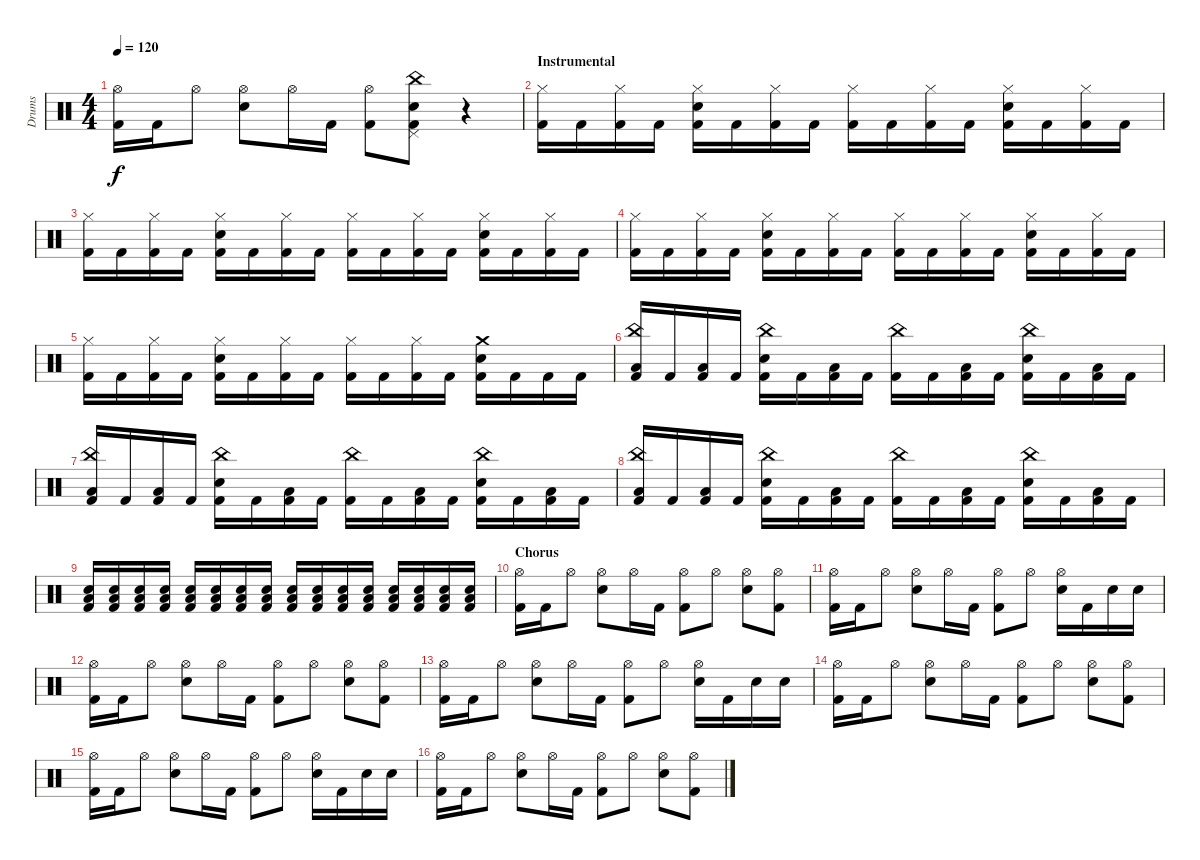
\track ("Drums" "Drums") {instrument percussion}
\staff {score}
\articulation defaults
\ts (4 4)
\tempo 120
\clef neutral
\ks c
("Hi-Hat (open)" "Kick (hit) 2").16{dy f} "Kick (hit) 2".16 "Hi-Hat (open)".8 ("Hi-Hat (open)" "Electric Snare (hit)").8 "Hi-Hat (open)".16 "Kick (hit) 2".16 ("Hi-Hat (open)" "Kick (hit) 2").8 ("China (hit)" "Pedal Hi-Hat (hit)" "Electric Snare (hit)" "Kick (hit) 2").8 r.4 |
\section ("" "Instrumental")
("Hi-Hat (closed)" "Kick (hit) 2").16 "Kick (hit) 2".16 ("Hi-Hat (closed)" "Kick (hit) 2").16 "Kick (hit) 2".16 ("Hi-Hat (closed)" "Electric Snare (hit)" "Kick (hit) 2").16 "Kick (hit) 2".16 ("Hi-Hat (closed)" "Kick (hit) 2").16 "Kick (hit) 2".16 ("Hi-Hat (closed)" "Kick (hit) 2").16 "Kick (hit) 2".16 ("Hi-Hat (closed)" "Kick (hit) 2").16 "Kick (hit) 2".16 ("Hi-Hat (closed)" "Electric Snare (hit)" "Kick (hit) 2").16 "Kick (hit) 2".16 ("Hi-Hat (closed)" "Kick (hit) 2").16 "Kick (hit) 2".16 |
("Hi-Hat (closed)" "Kick (hit) 2").16 "Kick (hit) 2".16 ("Hi-Hat (closed)" "Kick (hit) 2").16 "Kick (hit) 2".16 ("Hi-Hat (closed)" "Electric Snare (hit)" "Kick (hit) 2").16 "Kick (hit) 2".16 ("Hi-Hat (closed)" "Kick (hit) 2").16 "Kick (hit) 2".16 ("Hi-Hat (closed)" "Kick (hit) 2").16 "Kick (hit) 2".16 ("Hi-Hat (closed)" "Kick (hit) 2").16 "Kick (hit) 2".16 ("Hi-Hat (closed)" "Electric Snare (hit)" "Kick (hit) 2").16 "Kick (hit) 2".16 ("Hi-Hat (closed)" "Kick (hit) 2").16 "Kick (hit) 2".16 |
("Hi-Hat (closed)" "Kick (hit) 2").16 "Kick (hit) 2".16 ("Hi-Hat (closed)" "Kick (hit) 2").16 "Kick (hit) 2".16 ("Hi-Hat (closed)" "Electric Snare (hit)" "Kick (hit) 2").16 "Kick (hit) 2".16 ("Hi-Hat (closed)" "Kick (hit) 2").16 "Kick (hit) 2".16 ("Hi-Hat (closed)" "Kick (hit) 2").16 "Kick (hit) 2".16 ("Hi-Hat (closed)" "Kick (hit) 2").16 "Kick (hit) 2".16 ("Hi-Hat (closed)" "Electric Snare (hit)" "Kick (hit) 2").16 "Kick (hit) 2".16 ("Hi-Hat (closed)" "Kick (hit) 2").16 "Kick (hit) 2".16 |
("Hi-Hat (closed)" "Kick (hit) 2").16 "Kick (hit) 2".16 ("Hi-Hat (closed)" "Kick (hit) 2").16 "Kick (hit) 2".16 ("Hi-Hat (closed)" "Electric Snare (hit)" "Kick (hit) 2").16 "Kick (hit) 2".16 ("Hi-Hat (closed)" "Kick (hit) 2").16 "Kick (hit) 2".16 ("Hi-Hat (closed)" "Kick (hit) 2").16 "Kick (hit) 2".16 ("Hi-Hat (closed)" "Kick (hit) 2").16 "Kick (hit) 2".16 ("Crash medium (hit)" "Electric Snare (hit)" "Kick (hit) 2").16 "Kick (hit) 2".16 "Kick (hit) 2".16 "Kick (hit) 2".16 |
("China (hit)" "Low Floor Tom (hit)" "Kick (hit) 2").16 "Kick (hit) 2".16 ("Low Floor Tom (hit)" "Kick (hit) 2").16 "Kick (hit) 2".16 ("China (hit)" "Electric Snare (hit)" "Kick (hit) 2").16 "Kick (hit) 2".16 ("Low Floor Tom (hit)" "Kick (hit) 2").16 "Kick (hit) 2".16 ("China (hit)" "Kick (hit) 2").16 "Kick (hit) 2".16 ("Low Floor Tom (hit)" "Kick (hit) 2").16 "Kick (hit) 2".16 ("China (hit)" "Electric Snare (hit)" "Kick (hit) 2").16 "Kick (hit) 2".16 ("Low Floor Tom (hit)" "Kick (hit) 2").16 "Kick (hit) 2".16 |
("China (hit)" "Low Floor Tom (hit)" "Kick (hit) 2").16 "Kick (hit) 2".16 ("Low Floor Tom (hit)" "Kick (hit) 2").16 "Kick (hit) 2".16 ("China (hit)" "Electric Snare (hit)" "Kick (hit) 2").16 "Kick (hit) 2".16 ("Low Floor Tom (hit)" "Kick (hit) 2").16 "Kick (hit) 2".16 ("China (hit)" "Kick (hit) 2").16 "Kick (hit) 2".16 ("Low Floor Tom (hit)" "Kick (hit) 2").16 "Kick (hit) 2".16 ("China (hit)" "Electric Snare (hit)" "Kick (hit) 2").16 "Kick (hit) 2".16 ("Low Floor Tom (hit)" "Kick (hit) 2").16 "Kick (hit) 2".16 |
("China (hit)" "Low Floor Tom (hit)" "Kick (hit) 2").16 "Kick (hit) 2".16 ("Low Floor Tom (hit)" "Kick (hit) 2").16 "Kick (hit) 2".16 ("China (hit)" "Electric Snare (hit)" "Kick (hit) 2").16 "Kick (hit) 2".16 ("Low Floor Tom (hit)" "Kick (hit) 2").16 "Kick (hit) 2".16 ("China (hit)" "Kick (hit) 2").16 "Kick (hit) 2".16 ("Low Floor Tom (hit)" "Kick (hit) 2").16 "Kick (hit) 2".16 ("China (hit)" "Electric Snare (hit)" "Kick (hit) 2").16 "Kick (hit) 2".16 ("Low Floor Tom (hit)" "Kick (hit) 2").16 "Kick (hit) 2".16 |
("Low Floor Tom (hit)" "Electric Snare (hit)" "Kick (hit) 2").16 ("Low Floor Tom (hit)" "Electric Snare (hit)" "Kick (hit) 2").16 ("Low Floor Tom (hit)" "Electric Snare (hit)" "Kick (hit) 2").16 ("Low Floor Tom (hit)" "Electric Snare (hit)" "Kick (hit) 2").16 ("Low Floor Tom (hit)" "Electric Snare (hit)" "Kick (hit) 2").16 ("Low Floor Tom (hit)" "Electric Snare (hit)" "Kick (hit) 2").16 ("Low Floor Tom (hit)" "Electric Snare (hit)" "Kick (hit) 2").16 ("Low Floor Tom (hit)" "Electric Snare (hit)" "Kick (hit) 2").16 ("Low Floor Tom (hit)" "Electric Snare (hit)" "Kick (hit) 2").16 ("Low Floor Tom (hit)" "Electric Snare (hit)" "Kick (hit) 2").16 ("Low Floor Tom (hit)" "Electric Snare (hit)" "Kick (hit) 2").16 ("Low Floor Tom (hit)" "Electric Snare (hit)" "Kick (hit) 2").16 ("Low Floor Tom (hit)" "Electric Snare (hit)" "Kick (hit) 2").16 ("Low Floor Tom (hit)" "Electric Snare (hit)" "Kick (hit) 2").16 ("Low Floor Tom (hit)" "Electric Snare (hit)" "Kick (hit) 2").16 ("Low Floor Tom (hit)" "Electric Snare (hit)" "Kick (hit) 2").16 |
\section ("" "Chorus")
("Hi-Hat (open)" "Kick (hit) 2").16 "Kick (hit) 2".16 "Hi-Hat (open)".8 ("Hi-Hat (open)" "Electric Snare (hit)").8 "Hi-Hat (open)".16 "Kick (hit) 2".16 ("Hi-Hat (open)" "Kick (hit) 2").8 "Hi-Hat (open)".8 ("Hi-Hat (open)" "Electric Snare (hit)").8 ("Hi-Hat (open)" "Kick (hit) 2").8 |
("Hi-Hat (open)" "Kick (hit) 2").16 "Kick (hit) 2".16 "Hi-Hat (open)".8 ("Hi-Hat (open)" "Electric Snare (hit)").8 "Hi-Hat (open)".16 "Kick (hit) 2".16 ("Hi-Hat (open)" "Kick (hit) 2").8 "Hi-Hat (open)".8 ("Hi-Hat (open)" "Electric Snare (hit)").16 "Kick (hit) 2".16 "Electric Snare (hit)".16 "Electric Snare (hit)".16 |
("Hi-Hat (open)" "Kick (hit) 2").16 "Kick (hit) 2".16 "Hi-Hat (open)".8 ("Hi-Hat (open)" "Electric Snare (hit)").8 "Hi-Hat (open)".16 "Kick (hit) 2".16 ("Hi-Hat (open)" "Kick (hit) 2").8 "Hi-Hat (open)".8 ("Hi-Hat (open)" "Electric Snare (hit)").8 ("Hi-Hat (open)" "Kick (hit) 2").8 |
("Hi-Hat (open)" "Kick (hit) 2").16 "Kick (hit) 2".16 "Hi-Hat (open)".8 ("Hi-Hat (open)" "Electric Snare (hit)").8 "Hi-Hat (open)".16 "Kick (hit) 2".16 ("Hi-Hat (open)" "Kick (hit) 2").8 "Hi-Hat (open)".8 ("Hi-Hat (open)" "Electric Snare (hit)").16 "Kick (hit) 2".16 "Electric Snare (hit)".16 "Electric Snare (hit)".16 |
("Hi-Hat (open)" "Kick (hit) 2").16 "Kick (hit) 2".16 "Hi-Hat (open)".8 ("Hi-Hat (open)" "Electric Snare (hit)").8 "Hi-Hat (open)".16 "Kick (hit) 2".16 ("Hi-Hat (open)" "Kick (hit) 2").8 "Hi-Hat (open)".8 ("Hi-Hat (open)" "Electric Snare (hit)").8 ("Hi-Hat (open)" "Kick (hit) 2").8 |
("Hi-Hat (open)" "Kick (hit) 2").16 "Kick (hit) 2".16 "Hi-Hat (open)".8 ("Hi-Hat (open)" "Electric Snare (hit)").8 "Hi-Hat (open)".16 "Kick (hit) 2".16 ("Hi-Hat (open)" "Kick (hit) 2").8 "Hi-Hat (open)".8 ("Hi-Hat (open)" "Electric Snare (hit)").16 "Kick (hit) 2".16 "Electric Snare (hit)".16 "Electric Snare (hit)".16 |
("Hi-Hat (open)" "Kick (hit) 2").16 "Kick (hit) 2".16 "Hi-Hat (open)".8 ("Hi-Hat (open)" "Electric Snare (hit)").8 "Hi-Hat (open)".16 "Kick (hit) 2".16 ("Hi-Hat (open)" "Kick (hit) 2").8 "Hi-Hat (open)".8 ("Hi-Hat (open)" "Electric Snare (hit)").8 ("Hi-Hat (open)" "Kick (hit) 2").8
